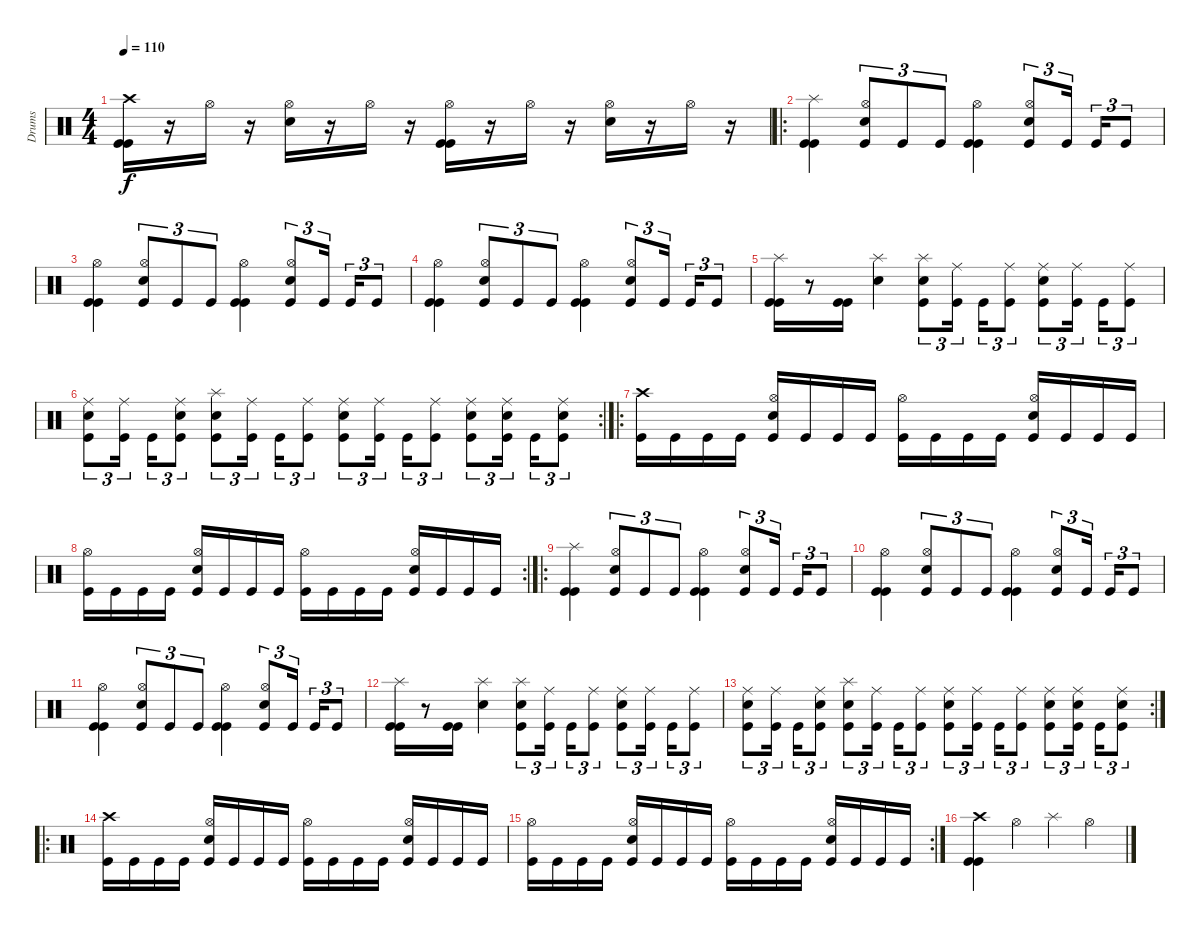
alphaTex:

\track ("Drums" "Drums") {instrument percussion}
\staff {score}
\articulation defaults
\ts (4 4)
\tempo 110
\clef neutral
\ks c
("Crash high (hit)" "Kick (hit)" "Kick (hit)").16{dy f} r.16 "Hi-Hat (open)".16 r.16 ("Hi-Hat (open)" "Snare (hit) 2").16 r.16 "Hi-Hat (open)".16 r.16 ("Hi-Hat (open)" "Kick (hit)" "Kick (hit)").16 r.16 "Hi-Hat (open)".16 r.16 ("Hi-Hat (open)" "Snare (hit) 2").16 r.16 "Hi-Hat (open)".16 r.16 |
\ro
("Splash (hit)" "Kick (hit)" "Kick (hit)").4 ("Hi-Hat (open)" "Snare (hit) 2" "Kick (hit)").8{tu (3 2)} "Kick (hit)".8{tu (3 2)} "Kick (hit)".8{tu (3 2)} ("Hi-Hat (open)" "Kick (hit)" "Kick (hit)").4 ("Hi-Hat (open)" "Snare (hit) 2" "Kick (hit)").8{tu (3 2)} "Kick (hit)".16{tu (3 2)} "Kick (hit)".16{tu (3 2)} "Kick (hit)".8{tu (3 2)} |
("Hi-Hat (open)" "Kick (hit)" "Kick (hit)").4 ("Hi-Hat (open)" "Snare (hit) 2" "Kick (hit)").8{tu (3 2)} "Kick (hit)".8{tu (3 2)} "Kick (hit)".8{tu (3 2)} ("Hi-Hat (open)" "Kick (hit)" "Kick (hit)").4 ("Hi-Hat (open)" "Snare (hit) 2" "Kick (hit)").8{tu (3 2)} "Kick (hit)".16{tu (3 2)} "Kick (hit)".16{tu (3 2)} "Kick (hit)".8{tu (3 2)} |
("Hi-Hat (open)" "Kick (hit)" "Kick (hit)").4 ("Hi-Hat (open)" "Snare (hit) 2" "Kick (hit)").8{tu (3 2)} "Kick (hit)".8{tu (3 2)} "Kick (hit)".8{tu (3 2)} ("Hi-Hat (open)" "Kick (hit)" "Kick (hit)").4 ("Hi-Hat (open)" "Snare (hit) 2" "Kick (hit)").8{tu (3 2)} "Kick (hit)".16{tu (3 2)} "Kick (hit)".16{tu (3 2)} "Kick (hit)".8{tu (3 2)} |
("Splash (hit)" "Kick (hit)" "Kick (hit)").16 r.8 ("Kick (hit)" "Kick (hit)").16 ("Splash (hit)" "Snare (hit) 2").4 ("Splash (hit)" "Snare (hit) 2" "Kick (hit)").8{tu (3 2)} ("Ride (middle)" "Kick (hit)").16{tu (3 2)} "Kick (hit)".16{tu (3 2)} ("Ride (middle)" "Kick (hit)").8{tu (3 2)} ("Ride (middle)" "Snare (hit) 2" "Kick (hit)").8{tu (3 2)} ("Ride (middle)" "Kick (hit)").16{tu (3 2)} "Kick (hit)".16{tu (3 2)} ("Ride (middle)" "Kick (hit)").8{tu (3 2)} |
\rc 2
("Ride (middle)" "Snare (hit) 2" "Kick (hit)").8{tu (3 2)} ("Ride (middle)" "Kick (hit)").16{tu (3 2)} "Kick (hit)".16{tu (3 2)} ("Ride (middle)" "Snare (hit) 2" "Kick (hit)").8{tu (3 2)} ("Splash (hit)" "Snare (hit) 2" "Kick (hit)").8{tu (3 2)} ("Ride (middle)" "Kick (hit)").16{tu (3 2)} "Kick (hit)".16{tu (3 2)} ("Ride (middle)" "Kick (hit)").8{tu (3 2)} ("Ride (middle)" "Snare (hit) 2" "Kick (hit)").8{tu (3 2)} ("Ride (middle)" "Kick (hit)").16{tu (3 2)} "Kick (hit)".16{tu (3 2)} ("Ride (middle)" "Kick (hit)").8{tu (3 2)} ("Ride (middle)" "Snare (hit) 2" "Kick (hit)").8{tu (3 2)} ("Ride (middle)" "Snare (hit) 2" "Kick (hit)").16{tu (3 2)} "Kick (hit)".16{tu (3 2)} ("Ride (middle)" "Snare (hit) 2" "Kick (hit)").8{tu (3 2)} |
\ro
("Crash high (hit)" "Kick (hit)").16 "Kick (hit)".16 "Kick (hit)".16 "Kick (hit)".16 ("Hi-Hat (open)" "Snare (hit) 2" "Kick (hit)").16 "Kick (hit)".16 "Kick (hit)".16 "Kick (hit)".16 ("Hi-Hat (open)" "Kick (hit)").16 "Kick (hit)".16 "Kick (hit)".16 "Kick (hit)".16 ("Hi-Hat (open)" "Snare (hit) 2" "Kick (hit)").16 "Kick (hit)".16 "Kick (hit)".16 "Kick (hit)".16 |
\rc 2
("Hi-Hat (open)" "Kick (hit)").16 "Kick (hit)".16 "Kick (hit)".16 "Kick (hit)".16 ("Hi-Hat (open)" "Snare (hit) 2" "Kick (hit)").16 "Kick (hit)".16 "Kick (hit)".16 "Kick (hit)".16 ("Hi-Hat (open)" "Kick (hit)").16 "Kick (hit)".16 "Kick (hit)".16 "Kick (hit)".16 ("Hi-Hat (open)" "Snare (hit) 2" "Kick (hit)").16 "Kick (hit)".16 "Kick (hit)".16 "Kick (hit)".16 |
\ro
("Splash (hit)" "Kick (hit)" "Kick (hit)").4 ("Hi-Hat (open)" "Snare (hit) 2" "Kick (hit)").8{tu (3 2)} "Kick (hit)".8{tu (3 2)} "Kick (hit)".8{tu (3 2)} ("Hi-Hat (open)" "Kick (hit)" "Kick (hit)").4 ("Hi-Hat (open)" "Snare (hit) 2" "Kick (hit)").8{tu (3 2)} "Kick (hit)".16{tu (3 2)} "Kick (hit)".16{tu (3 2)} "Kick (hit)".8{tu (3 2)} |
("Hi-Hat (open)" "Kick (hit)" "Kick (hit)").4 ("Hi-Hat (open)" "Snare (hit) 2" "Kick (hit)").8{tu (3 2)} "Kick (hit)".8{tu (3 2)} "Kick (hit)".8{tu (3 2)} ("Hi-Hat (open)" "Kick (hit)" "Kick (hit)").4 ("Hi-Hat (open)" "Snare (hit) 2" "Kick (hit)").8{tu (3 2)} "Kick (hit)".16{tu (3 2)} "Kick (hit)".16{tu (3 2)} "Kick (hit)".8{tu (3 2)} |
("Hi-Hat (open)" "Kick (hit)" "Kick (hit)").4 ("Hi-Hat (open)" "Snare (hit) 2" "Kick (hit)").8{tu (3 2)} "Kick (hit)".8{tu (3 2)} "Kick (hit)".8{tu (3 2)} ("Hi-Hat (open)" "Kick (hit)" "Kick (hit)").4 ("Hi-Hat (open)" "Snare (hit) 2" "Kick (hit)").8{tu (3 2)} "Kick (hit)".16{tu (3 2)} "Kick (hit)".16{tu (3 2)} "Kick (hit)".8{tu (3 2)} |
("Splash (hit)" "Kick (hit)" "Kick (hit)").16 r.8 ("Kick (hit)" "Kick (hit)").16 ("Splash (hit)" "Snare (hit) 2").4 ("Splash (hit)" "Snare (hit) 2" "Kick (hit)").8{tu (3 2)} ("Ride (middle)" "Kick (hit)").16{tu (3 2)} "Kick (hit)".16{tu (3 2)} ("Ride (middle)" "Kick (hit)").8{tu (3 2)} ("Ride (middle)" "Snare (hit) 2" "Kick (hit)").8{tu (3 2)} ("Ride (middle)" "Kick (hit)").16{tu (3 2)} "Kick (hit)".16{tu (3 2)} ("Ride (middle)" "Kick (hit)").8{tu (3 2)} |
\rc 2
("Ride (middle)" "Snare (hit) 2" "Kick (hit)").8{tu (3 2)} ("Ride (middle)" "Kick (hit)").16{tu (3 2)} "Kick (hit)".16{tu (3 2)} ("Ride (middle)" "Snare (hit) 2" "Kick (hit)").8{tu (3 2)} ("Splash (hit)" "Snare (hit) 2" "Kick (hit)").8{tu (3 2)} ("Ride (middle)" "Kick (hit)").16{tu (3 2)} "Kick (hit)".16{tu (3 2)} ("Ride (middle)" "Kick (hit)").8{tu (3 2)} ("Ride (middle)" "Snare (hit) 2" "Kick (hit)").8{tu (3 2)} ("Ride (middle)" "Kick (hit)").16{tu (3 2)} "Kick (hit)".16{tu (3 2)} ("Ride (middle)" "Kick (hit)").8{tu (3 2)} ("Ride (middle)" "Snare (hit) 2" "Kick (hit)").8{tu (3 2)} ("Ride (middle)" "Snare (hit) 2" "Kick (hit)").16{tu (3 2)} "Kick (hit)".16{tu (3 2)} ("Ride (middle)" "Snare (hit) 2" "Kick (hit)").8{tu (3 2)} |
\ro
("Crash high (hit)" "Kick (hit)").16 "Kick (hit)".16 "Kick (hit)".16 "Kick (hit)".16 ("Hi-Hat (open)" "Snare (hit) 2" "Kick (hit)").16 "Kick (hit)".16 "Kick (hit)".16 "Kick (hit)".16 ("Hi-Hat (open)" "Kick (hit)").16 "Kick (hit)".16 "Kick (hit)".16 "Kick (hit)".16 ("Hi-Hat (open)" "Snare (hit) 2" "Kick (hit)").16 "Kick (hit)".16 "Kick (hit)".16 "Kick (hit)".16 |
\rc 2
("Hi-Hat (open)" "Kick (hit)").16 "Kick (hit)".16 "Kick (hit)".16 "Kick (hit)".16 ("Hi-Hat (open)" "Snare (hit) 2" "Kick (hit)").16 "Kick (hit)".16 "Kick (hit)".16 "Kick (hit)".16 ("Hi-Hat (open)" "Kick (hit)").16 "Kick (hit)".16 "Kick (hit)".16 "Kick (hit)".16 ("Hi-Hat (open)" "Snare (hit) 2" "Kick (hit)").16 "Kick (hit)".16 "Kick (hit)".16 "Kick (hit)".16 |
("Crash high (hit)" "Kick (hit)" "Kick (hit)").4 "Hi-Hat (open)".4 "Splash (hit)".4 "Hi-Hat (open)".4
